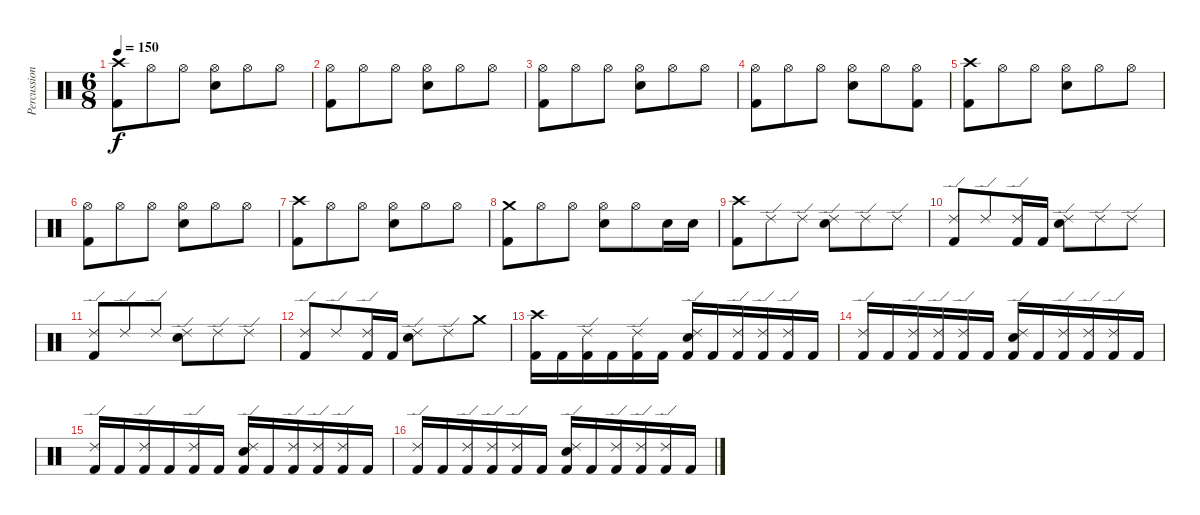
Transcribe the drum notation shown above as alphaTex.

\track ("Percussion" "Percussion") {instrument percussion}
\staff {score}
\articulation defaults
\ts (6 8)
\tempo 150
\clef neutral
\ks c
("Crash high (hit)" "Kick (hit) 2").8{dy f} "Hi-Hat (open)".8 "Hi-Hat (open)".8 ("Hi-Hat (open)" "Electric Snare (hit)").8 "Hi-Hat (open)".8 "Hi-Hat (open)".8 |
("Hi-Hat (open)" "Kick (hit) 2").8 "Hi-Hat (open)".8 "Hi-Hat (open)".8 ("Hi-Hat (open)" "Electric Snare (hit)").8 "Hi-Hat (open)".8 "Hi-Hat (open)".8 |
("Hi-Hat (open)" "Kick (hit) 2").8 "Hi-Hat (open)".8 "Hi-Hat (open)".8 ("Hi-Hat (open)" "Electric Snare (hit)").8 "Hi-Hat (open)".8 "Hi-Hat (open)".8 |
("Hi-Hat (open)" "Kick (hit) 2").8 "Hi-Hat (open)".8 "Hi-Hat (open)".8 ("Hi-Hat (open)" "Electric Snare (hit)").8 "Hi-Hat (open)".8 ("Hi-Hat (open)" "Kick (hit) 2").8 |
("Crash high (hit)" "Kick (hit) 2").8 "Hi-Hat (open)".8 "Hi-Hat (open)".8 ("Hi-Hat (open)" "Electric Snare (hit)").8 "Hi-Hat (open)".8 "Hi-Hat (open)".8 |
("Hi-Hat (open)" "Kick (hit) 2").8 "Hi-Hat (open)".8 "Hi-Hat (open)".8 ("Hi-Hat (open)" "Electric Snare (hit)").8 "Hi-Hat (open)".8 "Hi-Hat (open)".8 |
("Crash high (hit)" "Kick (hit) 2").8 "Hi-Hat (open)".8 "Hi-Hat (open)".8 ("Hi-Hat (open)" "Electric Snare (hit)").8 "Hi-Hat (open)".8 "Hi-Hat (open)".8 |
("Crash medium (hit)" "Kick (hit) 2").8 "Hi-Hat (open)".8 "Hi-Hat (open)".8 ("Hi-Hat (open)" "Electric Snare (hit)").8 "Hi-Hat (open)".8 "Electric Snare (hit)".16 "Electric Snare (hit)".16 |
("Crash high (hit)" "Kick (hit) 2").8 "Ride (edge) 2".8 "Ride (edge) 2".8 ("Ride (edge) 2" "Electric Snare (hit)").8 "Ride (edge) 2".8 "Ride (edge) 2".8 |
("Ride (edge) 2" "Kick (hit) 2").8 "Ride (edge) 2".8 ("Ride (edge) 2" "Kick (hit) 2").16 "Kick (hit) 2".16 ("Ride (edge) 2" "Electric Snare (hit)").8 "Ride (edge) 2".8 "Ride (edge) 2".8 |
("Ride (edge) 2" "Kick (hit) 2").8 "Ride (edge) 2".8 "Ride (edge) 2".8 ("Ride (edge) 2" "Electric Snare (hit)").8 "Ride (edge) 2".8 "Ride (edge) 2".8 |
("Ride (edge) 2" "Kick (hit) 2").8 "Ride (edge) 2".8 ("Ride (edge) 2" "Kick (hit) 2").16 "Kick (hit) 2".16 ("Ride (edge) 2" "Electric Snare (hit)").8 "Ride (edge) 2".8 "Crash medium (hit)".8 |
("Crash high (hit)" "Kick (hit) 2").16 "Kick (hit) 2".16 ("Ride (edge) 2" "Kick (hit) 2").16 "Kick (hit) 2".16 ("Ride (edge) 2" "Kick (hit) 2").16 "Kick (hit) 2".16 ("Ride (edge) 2" "Electric Snare (hit)" "Kick (hit) 2").16 "Kick (hit) 2".16 ("Ride (edge) 2" "Kick (hit) 2").16 ("Ride (edge) 2" "Kick (hit) 2").16 ("Ride (edge) 2" "Kick (hit) 2").16 "Kick (hit) 2".16 |
("Ride (edge) 2" "Kick (hit) 2").16 "Kick (hit) 2".16 ("Ride (edge) 2" "Kick (hit) 2").16 ("Ride (edge) 2" "Kick (hit) 2").16 ("Ride (edge) 2" "Kick (hit) 2").16 "Kick (hit) 2".16 ("Ride (edge) 2" "Electric Snare (hit)" "Kick (hit) 2").16 "Kick (hit) 2".16 ("Ride (edge) 2" "Kick (hit) 2").16 ("Ride (edge) 2" "Kick (hit) 2").16 ("Ride (edge) 2" "Kick (hit) 2").16 "Kick (hit) 2".16 |
("Ride (edge) 2" "Kick (hit) 2").16 "Kick (hit) 2".16 ("Ride (edge) 2" "Kick (hit) 2").16 "Kick (hit) 2".16 ("Ride (edge) 2" "Kick (hit) 2").16 "Kick (hit) 2".16 ("Ride (edge) 2" "Electric Snare (hit)" "Kick (hit) 2").16 "Kick (hit) 2".16 ("Ride (edge) 2" "Kick (hit) 2").16 ("Ride (edge) 2" "Kick (hit) 2").16 ("Ride (edge) 2" "Kick (hit) 2").16 "Kick (hit) 2".16 |
("Ride (edge) 2" "Kick (hit) 2").16 "Kick (hit) 2".16 ("Ride (edge) 2" "Kick (hit) 2").16 ("Ride (edge) 2" "Kick (hit) 2").16 ("Ride (edge) 2" "Kick (hit) 2").16 "Kick (hit) 2".16 ("Ride (edge) 2" "Electric Snare (hit)" "Kick (hit) 2").16 "Kick (hit) 2".16 ("Ride (edge) 2" "Kick (hit) 2").16 ("Ride (edge) 2" "Kick (hit) 2").16 ("Ride (edge) 2" "Kick (hit) 2").16 "Kick (hit) 2".16
